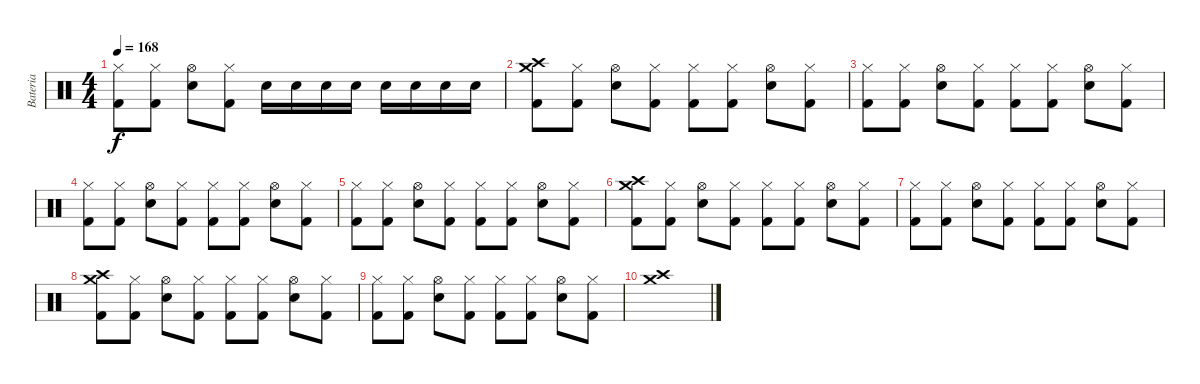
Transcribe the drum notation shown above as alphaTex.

\track ("Bateria" "Bateria") {instrument percussion}
\staff {score}
\articulation defaults
\ts (4 4)
\tempo 168
\clef neutral
\ks c
("Hi-Hat (closed)" "Kick (hit) 2").8{dy f} ("Hi-Hat (closed)" "Kick (hit) 2").8 ("Hi-Hat (open)" "Snare (hit) 2").8 ("Hi-Hat (closed)" "Kick (hit) 2").8 "Snare (hit) 2".16 "Snare (hit) 2".16 "Snare (hit) 2".16 "Snare (hit) 2".16 "Snare (hit) 2".16 "Snare (hit) 2".16 "Snare (hit) 2".16 "Snare (hit) 2".16 |
("Crash medium (hit)" "Crash high (hit)" "Kick (hit) 2").8 ("Hi-Hat (closed)" "Kick (hit) 2").8 ("Hi-Hat (open)" "Snare (hit) 2").8 ("Hi-Hat (closed)" "Kick (hit) 2").8 ("Hi-Hat (closed)" "Kick (hit) 2").8 ("Hi-Hat (closed)" "Kick (hit) 2").8 ("Hi-Hat (open)" "Snare (hit) 2").8 ("Hi-Hat (closed)" "Kick (hit) 2").8 |
("Hi-Hat (closed)" "Kick (hit) 2").8 ("Hi-Hat (closed)" "Kick (hit) 2").8 ("Hi-Hat (open)" "Snare (hit) 2").8 ("Hi-Hat (closed)" "Kick (hit) 2").8 ("Hi-Hat (closed)" "Kick (hit) 2").8 ("Hi-Hat (closed)" "Kick (hit) 2").8 ("Hi-Hat (open)" "Snare (hit) 2").8 ("Hi-Hat (closed)" "Kick (hit) 2").8 |
("Hi-Hat (closed)" "Kick (hit) 2").8 ("Hi-Hat (closed)" "Kick (hit) 2").8 ("Hi-Hat (open)" "Snare (hit) 2").8 ("Hi-Hat (closed)" "Kick (hit) 2").8 ("Hi-Hat (closed)" "Kick (hit) 2").8 ("Hi-Hat (closed)" "Kick (hit) 2").8 ("Hi-Hat (open)" "Snare (hit) 2").8 ("Hi-Hat (closed)" "Kick (hit) 2").8 |
("Hi-Hat (closed)" "Kick (hit) 2").8 ("Hi-Hat (closed)" "Kick (hit) 2").8 ("Hi-Hat (open)" "Snare (hit) 2").8 ("Hi-Hat (closed)" "Kick (hit) 2").8 ("Hi-Hat (closed)" "Kick (hit) 2").8 ("Hi-Hat (closed)" "Kick (hit) 2").8 ("Hi-Hat (open)" "Snare (hit) 2").8 ("Hi-Hat (closed)" "Kick (hit) 2").8 |
("Crash medium (hit)" "Crash high (hit)" "Kick (hit) 2").8 ("Hi-Hat (closed)" "Kick (hit) 2").8 ("Hi-Hat (open)" "Snare (hit) 2").8 ("Hi-Hat (closed)" "Kick (hit) 2").8 ("Hi-Hat (closed)" "Kick (hit) 2").8 ("Hi-Hat (closed)" "Kick (hit) 2").8 ("Hi-Hat (open)" "Snare (hit) 2").8 ("Hi-Hat (closed)" "Kick (hit) 2").8 |
("Hi-Hat (closed)" "Kick (hit) 2").8 ("Hi-Hat (closed)" "Kick (hit) 2").8 ("Hi-Hat (open)" "Snare (hit) 2").8 ("Hi-Hat (closed)" "Kick (hit) 2").8 ("Hi-Hat (closed)" "Kick (hit) 2").8 ("Hi-Hat (closed)" "Kick (hit) 2").8 ("Hi-Hat (open)" "Snare (hit) 2").8 ("Hi-Hat (closed)" "Kick (hit) 2").8 |
("Crash medium (hit)" "Crash high (hit)" "Kick (hit) 2").8 ("Hi-Hat (closed)" "Kick (hit) 2").8 ("Hi-Hat (open)" "Snare (hit) 2").8 ("Hi-Hat (closed)" "Kick (hit) 2").8 ("Hi-Hat (closed)" "Kick (hit) 2").8 ("Hi-Hat (closed)" "Kick (hit) 2").8 ("Hi-Hat (open)" "Snare (hit) 2").8 ("Hi-Hat (closed)" "Kick (hit) 2").8 |
("Hi-Hat (closed)" "Kick (hit) 2").8 ("Hi-Hat (closed)" "Kick (hit) 2").8 ("Hi-Hat (open)" "Snare (hit) 2").8 ("Hi-Hat (closed)" "Kick (hit) 2").8 ("Hi-Hat (closed)" "Kick (hit) 2").8 ("Hi-Hat (closed)" "Kick (hit) 2").8 ("Hi-Hat (open)" "Snare (hit) 2").8 ("Hi-Hat (closed)" "Kick (hit) 2").8 |
("Crash high (hit)" "Crash medium (hit)").1
